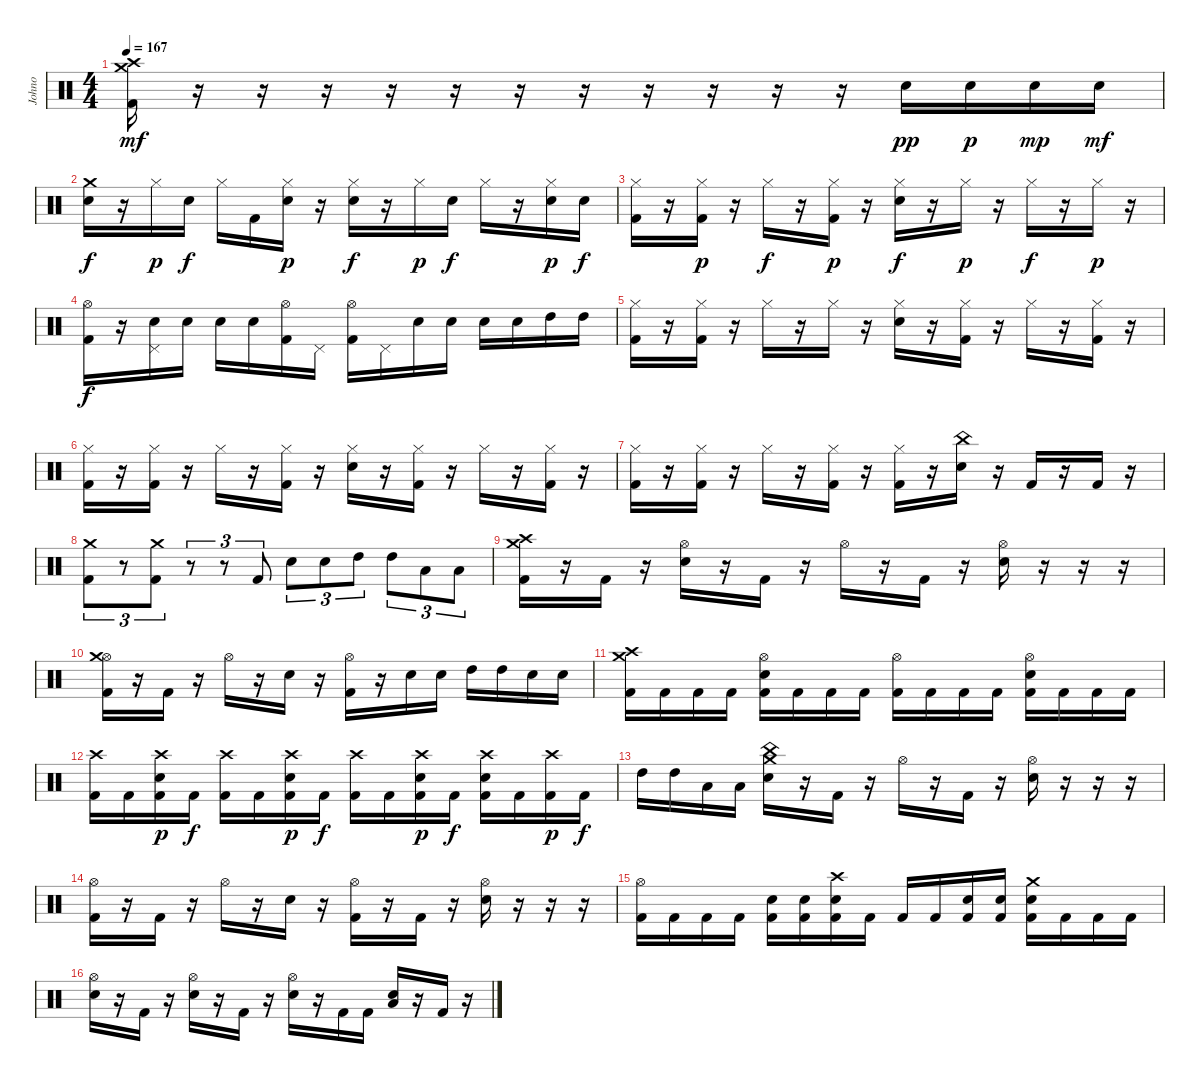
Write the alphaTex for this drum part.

\track ("Johno" "Johno") {instrument percussion}
\staff {score}
\articulation defaults
\ts (4 4)
\tempo 167
\clef neutral
\ks c
("Crash high (hit)" "Crash medium (hit)" "Kick (hit) 2").16{dy mf} r.16 r.16 r.16 r.16 r.16 r.16 r.16 r.16 r.16 r.16 r.16 "Electric Snare (hit)".16{dy pp} "Electric Snare (hit)".16{dy p} "Electric Snare (hit)".16{dy mp} "Electric Snare (hit)".16{dy mf} |
("Crash medium (hit)" "Electric Snare (hit)").16{dy f} r.16 "Hi-Hat (closed)".16{dy p} "Electric Snare (hit)".16{dy f} "Hi-Hat (closed)".16 "Kick (hit) 2".16 ("Hi-Hat (closed)" "Electric Snare (hit)").16{dy p} r.16 ("Hi-Hat (closed)" "Electric Snare (hit)").16{dy f} r.16 "Hi-Hat (closed)".16{dy p} "Electric Snare (hit)".16{dy f} "Hi-Hat (closed)".16 r.16 ("Hi-Hat (closed)" "Electric Snare (hit)").16{dy p} "Electric Snare (hit)".16{dy f} |
("Hi-Hat (closed)" "Kick (hit) 2").16 r.16 ("Hi-Hat (closed)" "Kick (hit) 2").16{dy p} r.16 "Hi-Hat (closed)".16{dy f} r.16 ("Hi-Hat (closed)" "Kick (hit) 2").16{dy p} r.16 ("Hi-Hat (closed)" "Electric Snare (hit)").16{dy f} r.16 "Hi-Hat (closed)".16{dy p} r.16 "Hi-Hat (closed)".16{dy f} r.16 "Hi-Hat (closed)".16{dy p} r.16 |
("Hi-Hat (open)" "Kick (hit) 2").16{dy f} r.16 ("Pedal Hi-Hat (hit)" "Electric Snare (hit)").16 "Electric Snare (hit)".16 "Electric Snare (hit)".16 "Electric Snare (hit)".16 ("Hi-Hat (open)" "Kick (hit) 2").16 "Pedal Hi-Hat (hit)".16 ("Hi-Hat (open)" "Kick (hit) 2").16 "Pedal Hi-Hat (hit)".16 "Electric Snare (hit)".16 "Electric Snare (hit)".16 "Electric Snare (hit)".16 "Electric Snare (hit)".16 "High Tom (hit)".16 "High Tom (hit)".16 |
("Hi-Hat (closed)" "Kick (hit) 2").16 r.16 ("Hi-Hat (closed)" "Kick (hit) 2").16 r.16 "Hi-Hat (closed)".16 r.16 "Hi-Hat (closed)".16 r.16 ("Hi-Hat (closed)" "Electric Snare (hit)").16 r.16 ("Hi-Hat (closed)" "Kick (hit) 2").16 r.16 "Hi-Hat (closed)".16 r.16 ("Hi-Hat (closed)" "Kick (hit) 2").16 r.16 |
("Hi-Hat (closed)" "Kick (hit) 2").16 r.16 ("Hi-Hat (closed)" "Kick (hit) 2").16 r.16 "Hi-Hat (closed)".16 r.16 ("Hi-Hat (closed)" "Kick (hit) 2").16 r.16 ("Hi-Hat (closed)" "Electric Snare (hit)").16 r.16 ("Hi-Hat (closed)" "Kick (hit) 2").16 r.16 "Hi-Hat (closed)".16 r.16 ("Hi-Hat (closed)" "Kick (hit) 2").16 r.16 |
("Hi-Hat (closed)" "Kick (hit) 2").16 r.16 ("Hi-Hat (closed)" "Kick (hit) 2").16 r.16 "Hi-Hat (closed)".16 r.16 ("Hi-Hat (closed)" "Kick (hit) 2").16 r.16 ("Hi-Hat (closed)" "Kick (hit) 2").16 r.16 ("China (hit)" "Electric Snare (hit)").16 r.16 "Kick (hit) 2".16 r.16 "Kick (hit) 2".16 r.16 |
("Crash medium (hit)" "Kick (hit) 2").8{tu (3 2)} r.8{tu (3 2)} ("Crash medium (hit)" "Kick (hit) 2").8{tu (3 2)} r.8{tu (3 2)} r.8{tu (3 2)} "Kick (hit) 2".8{tu (3 2)} "Electric Snare (hit)".8{tu (3 2)} "Electric Snare (hit)".8{tu (3 2)} "High Tom (hit)".8{tu (3 2)} "High Tom (hit)".8{tu (3 2)} "Low Floor Tom (hit)".8{tu (3 2)} "Low Floor Tom (hit)".8{tu (3 2)} |
("Crash high (hit)" "Crash medium (hit)" "Kick (hit) 2").16 r.16 "Kick (hit) 2".16 r.16 ("Hi-Hat (open)" "Electric Snare (hit)").16 r.16 "Kick (hit) 2".16 r.16 "Hi-Hat (open)".16 r.16 "Kick (hit) 2".16 r.16 ("Hi-Hat (open)" "Electric Snare (hit)").16 r.16 r.16 r.16 |
("Hi-Hat (open)" "Crash medium (hit)" "Kick (hit) 2").16 r.16 "Kick (hit) 2".16 r.16 "Hi-Hat (open)".16 r.16 "Electric Snare (hit)".16 r.16 ("Hi-Hat (open)" "Kick (hit) 2").16 r.16 "Electric Snare (hit)".16 "Electric Snare (hit)".16 "High Tom (hit)".16 "High Tom (hit)".16 "Electric Snare (hit)".16 "Electric Snare (hit)".16 |
("Crash high (hit)" "Crash medium (hit)" "Kick (hit) 2").16 "Kick (hit) 2".16 "Kick (hit) 2".16 "Kick (hit) 2".16 ("Hi-Hat (open)" "Electric Snare (hit)" "Kick (hit) 2").16 "Kick (hit) 2".16 "Kick (hit) 2".16 "Kick (hit) 2".16 ("Hi-Hat (open)" "Kick (hit) 2").16 "Kick (hit) 2".16 "Kick (hit) 2".16 "Kick (hit) 2".16 ("Hi-Hat (open)" "Electric Snare (hit)" "Kick (hit) 2").16 "Kick (hit) 2".16 "Kick (hit) 2".16 "Kick (hit) 2".16 |
("Crash high (hit)" "Kick (hit) 2").16 "Kick (hit) 2".16 ("Crash high (hit)" "Electric Snare (hit)" "Kick (hit) 2").16{dy p} "Kick (hit) 2".16{dy f} ("Crash high (hit)" "Kick (hit) 2").16 "Kick (hit) 2".16 ("Crash high (hit)" "Electric Snare (hit)" "Kick (hit) 2").16{dy p} "Kick (hit) 2".16{dy f} ("Crash high (hit)" "Kick (hit) 2").16 "Kick (hit) 2".16 ("Crash high (hit)" "Electric Snare (hit)" "Kick (hit) 2").16{dy p} "Kick (hit) 2".16{dy f} ("Crash high (hit)" "Electric Snare (hit)" "Kick (hit) 2").16 "Kick (hit) 2".16 ("Crash high (hit)" "Kick (hit) 2").16{dy p} "Kick (hit) 2".16{dy f} |
"High Tom (hit)".16 "High Tom (hit)".16 "Low Floor Tom (hit)".16 "Low Floor Tom (hit)".16 ("Crash medium (hit)" "China (hit)" "Electric Snare (hit)").16 r.16 "Kick (hit) 2".16 r.16 "Hi-Hat (open)".16 r.16 "Kick (hit) 2".16 r.16 ("Hi-Hat (open)" "Electric Snare (hit)").16 r.16 r.16 r.16 |
("Hi-Hat (open)" "Kick (hit) 2").16 r.16 "Kick (hit) 2".16 r.16 "Hi-Hat (open)".16 r.16 "Electric Snare (hit)".16 r.16 ("Hi-Hat (open)" "Kick (hit) 2").16 r.16 "Kick (hit) 2".16 r.16 ("Hi-Hat (open)" "Electric Snare (hit)").16 r.16 r.16 r.16 |
("Hi-Hat (open)" "Kick (hit) 2").16 "Kick (hit) 2".16 "Kick (hit) 2".16 "Kick (hit) 2".16 ("Electric Snare (hit)" "Kick (hit) 2").16 ("Electric Snare (hit)" "Kick (hit) 2").16 ("Crash high (hit)" "Electric Snare (hit)" "Kick (hit) 2").16 "Kick (hit) 2".16 "Kick (hit) 2".16 "Kick (hit) 2".16 ("Electric Snare (hit)" "Kick (hit) 2").16 ("Electric Snare (hit)" "Kick (hit) 2").16 ("Crash medium (hit)" "Electric Snare (hit)" "Kick (hit) 2").16 "Kick (hit) 2".16 "Kick (hit) 2".16 "Kick (hit) 2".16 |
("Hi-Hat (open)" "Electric Snare (hit)").16 r.16 "Kick (hit) 2".16 r.16 ("Hi-Hat (open)" "Electric Snare (hit)").16 r.16 "Kick (hit) 2".16 r.16 ("Hi-Hat (open)" "Electric Snare (hit)").16 r.16 "Kick (hit) 2".16 "Kick (hit) 2".16 ("Low Floor Tom (hit)" "Electric Snare (hit)").16 r.16 "Kick (hit) 2".16 r.16
